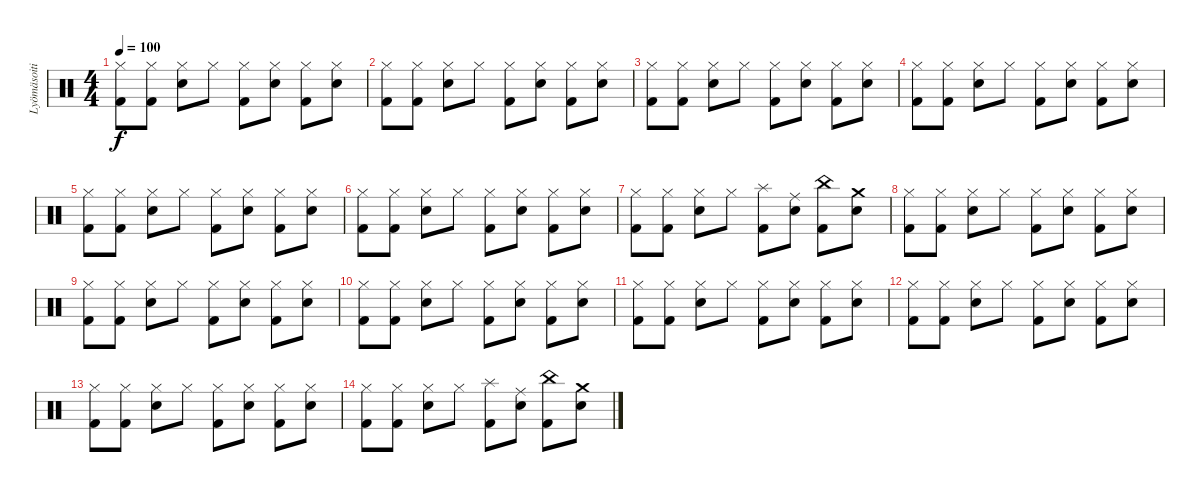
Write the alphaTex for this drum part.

\track ("Lyömäsoitin" "Lyömäsoiti") {instrument percussion}
\staff {score}
\articulation defaults
\ts (4 4)
\tempo 100
\clef neutral
\ks c
("Hi-Hat (closed)" "Kick (hit) 2").8{dy f} ("Hi-Hat (closed)" "Kick (hit) 2").8 ("Hi-Hat (closed)" "Snare (hit) 2").8 "Hi-Hat (closed)".8 ("Hi-Hat (closed)" "Kick (hit) 2").8 ("Hi-Hat (closed)" "Snare (hit) 2").8 ("Hi-Hat (closed)" "Kick (hit) 2").8 ("Hi-Hat (closed)" "Snare (hit) 2").8 |
("Hi-Hat (closed)" "Kick (hit) 2").8 ("Hi-Hat (closed)" "Kick (hit) 2").8 ("Hi-Hat (closed)" "Snare (hit) 2").8 "Hi-Hat (closed)".8 ("Hi-Hat (closed)" "Kick (hit) 2").8 ("Hi-Hat (closed)" "Snare (hit) 2").8 ("Hi-Hat (closed)" "Kick (hit) 2").8 ("Hi-Hat (closed)" "Snare (hit) 2").8 |
("Hi-Hat (closed)" "Kick (hit) 2").8 ("Hi-Hat (closed)" "Kick (hit) 2").8 ("Hi-Hat (closed)" "Snare (hit) 2").8 "Hi-Hat (closed)".8 ("Hi-Hat (closed)" "Kick (hit) 2").8 ("Hi-Hat (closed)" "Snare (hit) 2").8 ("Hi-Hat (closed)" "Kick (hit) 2").8 ("Hi-Hat (closed)" "Snare (hit) 2").8 |
("Hi-Hat (closed)" "Kick (hit) 2").8 ("Hi-Hat (closed)" "Kick (hit) 2").8 ("Hi-Hat (closed)" "Snare (hit) 2").8 "Hi-Hat (closed)".8 ("Hi-Hat (closed)" "Kick (hit) 2").8 ("Hi-Hat (closed)" "Snare (hit) 2").8 ("Hi-Hat (closed)" "Kick (hit) 2").8 ("Hi-Hat (closed)" "Snare (hit) 2").8 |
("Hi-Hat (closed)" "Kick (hit) 2").8 ("Hi-Hat (closed)" "Kick (hit) 2").8 ("Hi-Hat (closed)" "Snare (hit) 2").8 "Hi-Hat (closed)".8 ("Hi-Hat (closed)" "Kick (hit) 2").8 ("Hi-Hat (closed)" "Snare (hit) 2").8 ("Hi-Hat (closed)" "Kick (hit) 2").8 ("Hi-Hat (closed)" "Snare (hit) 2").8 |
("Hi-Hat (closed)" "Kick (hit) 2").8 ("Hi-Hat (closed)" "Kick (hit) 2").8 ("Hi-Hat (closed)" "Snare (hit) 2").8 "Hi-Hat (closed)".8 ("Hi-Hat (closed)" "Kick (hit) 2").8 ("Hi-Hat (closed)" "Snare (hit) 2").8 ("Hi-Hat (closed)" "Kick (hit) 2").8 ("Hi-Hat (closed)" "Snare (hit) 2").8 |
("Hi-Hat (closed)" "Kick (hit) 2").8 ("Hi-Hat (closed)" "Kick (hit) 2").8 ("Hi-Hat (closed)" "Snare (hit) 2").8 "Hi-Hat (closed)".8 ("Splash (hit)" "Kick (hit) 2").8 ("Ride (middle)" "Snare (hit) 2").8 ("China (hit)" "Kick (hit) 2").8 ("Crash medium (hit)" "Snare (hit) 2").8 |
("Hi-Hat (closed)" "Kick (hit) 2").8 ("Hi-Hat (closed)" "Kick (hit) 2").8 ("Hi-Hat (closed)" "Snare (hit) 2").8 "Hi-Hat (closed)".8 ("Hi-Hat (closed)" "Kick (hit) 2").8 ("Hi-Hat (closed)" "Snare (hit) 2").8 ("Hi-Hat (closed)" "Kick (hit) 2").8 ("Hi-Hat (closed)" "Snare (hit) 2").8 |
("Hi-Hat (closed)" "Kick (hit) 2").8 ("Hi-Hat (closed)" "Kick (hit) 2").8 ("Hi-Hat (closed)" "Snare (hit) 2").8 "Hi-Hat (closed)".8 ("Hi-Hat (closed)" "Kick (hit) 2").8 ("Hi-Hat (closed)" "Snare (hit) 2").8 ("Hi-Hat (closed)" "Kick (hit) 2").8 ("Hi-Hat (closed)" "Snare (hit) 2").8 |
("Hi-Hat (closed)" "Kick (hit) 2").8 ("Hi-Hat (closed)" "Kick (hit) 2").8 ("Hi-Hat (closed)" "Snare (hit) 2").8 "Hi-Hat (closed)".8 ("Hi-Hat (closed)" "Kick (hit) 2").8 ("Hi-Hat (closed)" "Snare (hit) 2").8 ("Hi-Hat (closed)" "Kick (hit) 2").8 ("Hi-Hat (closed)" "Snare (hit) 2").8 |
("Hi-Hat (closed)" "Kick (hit) 2").8 ("Hi-Hat (closed)" "Kick (hit) 2").8 ("Hi-Hat (closed)" "Snare (hit) 2").8 "Hi-Hat (closed)".8 ("Hi-Hat (closed)" "Kick (hit) 2").8 ("Hi-Hat (closed)" "Snare (hit) 2").8 ("Hi-Hat (closed)" "Kick (hit) 2").8 ("Hi-Hat (closed)" "Snare (hit) 2").8 |
("Hi-Hat (closed)" "Kick (hit) 2").8 ("Hi-Hat (closed)" "Kick (hit) 2").8 ("Hi-Hat (closed)" "Snare (hit) 2").8 "Hi-Hat (closed)".8 ("Hi-Hat (closed)" "Kick (hit) 2").8 ("Hi-Hat (closed)" "Snare (hit) 2").8 ("Hi-Hat (closed)" "Kick (hit) 2").8 ("Hi-Hat (closed)" "Snare (hit) 2").8 |
("Hi-Hat (closed)" "Kick (hit) 2").8 ("Hi-Hat (closed)" "Kick (hit) 2").8 ("Hi-Hat (closed)" "Snare (hit) 2").8 "Hi-Hat (closed)".8 ("Hi-Hat (closed)" "Kick (hit) 2").8 ("Hi-Hat (closed)" "Snare (hit) 2").8 ("Hi-Hat (closed)" "Kick (hit) 2").8 ("Hi-Hat (closed)" "Snare (hit) 2").8 |
("Hi-Hat (closed)" "Kick (hit) 2").8 ("Hi-Hat (closed)" "Kick (hit) 2").8 ("Hi-Hat (closed)" "Snare (hit) 2").8 "Hi-Hat (closed)".8 ("Splash (hit)" "Kick (hit) 2").8 ("Ride (middle)" "Snare (hit) 2").8 ("China (hit)" "Kick (hit) 2").8 ("Crash medium (hit)" "Snare (hit) 2").8
